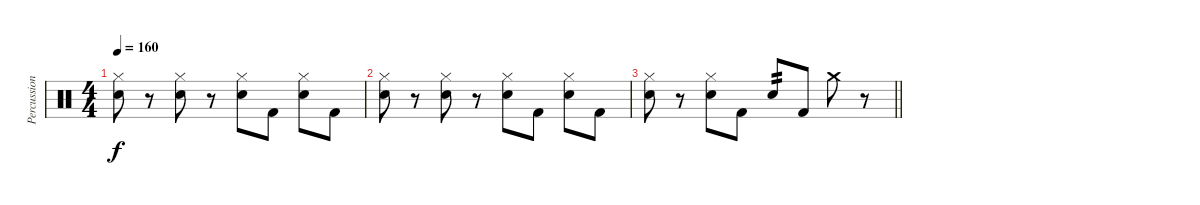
\track ("Percussion" "Percussion") {instrument percussion}
\staff {score}
\articulation defaults
\ts (4 4)
\tempo 160
\clef neutral
\ks c
("Hi-Hat (closed)" "Snare (hit) 2").8{dy f} r.8 ("Hi-Hat (closed)" "Snare (hit) 2").8 r.8 ("Hi-Hat (closed)" "Snare (hit) 2").8 "Kick (hit) 2".8 ("Hi-Hat (closed)" "Snare (hit) 2").8 "Kick (hit) 2".8 |
("Hi-Hat (closed)" "Snare (hit) 2").8 r.8 ("Hi-Hat (closed)" "Snare (hit) 2").8 r.8 ("Hi-Hat (closed)" "Snare (hit) 2").8 "Kick (hit) 2".8 ("Hi-Hat (closed)" "Snare (hit) 2").8 "Kick (hit) 2".8 |
\barLineRight lightlight
("Hi-Hat (closed)" "Snare (hit) 2").8 r.8 ("Hi-Hat (closed)" "Snare (hit) 2").8 "Kick (hit) 2".8 "Snare (hit) 2".8{tp 2} "Kick (hit) 2".8 "Crash medium (hit)".8 r.8
